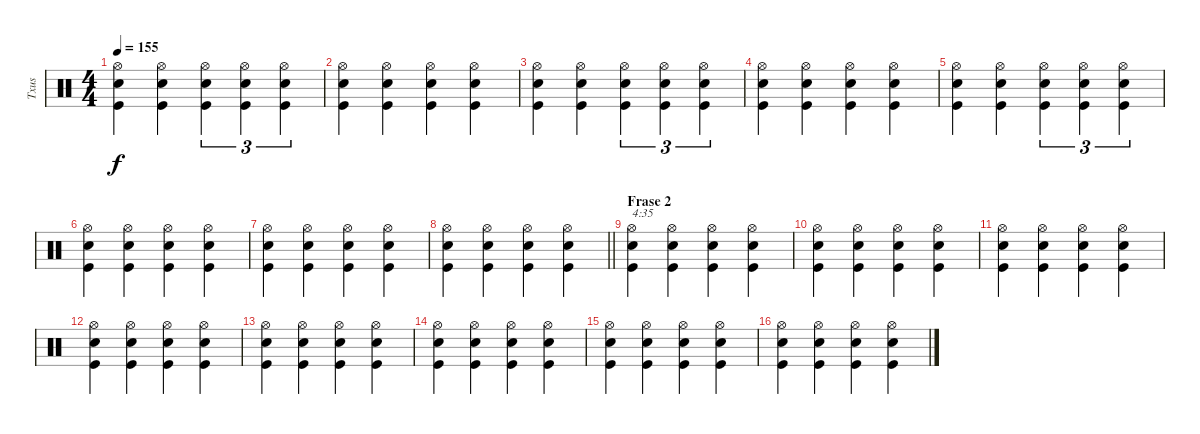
\track ("Txus" "Txus") {instrument percussion}
\staff {score}
\articulation defaults
\ts (4 4)
\tempo 155
\clef neutral
\ks c
("Kick (hit)" "Snare (hit) 2" "Hi-Hat (open)").4{dy f} ("Kick (hit)" "Snare (hit) 2" "Hi-Hat (open)").4 ("Kick (hit)" "Snare (hit) 2" "Hi-Hat (open)").4{tu (3 2)} ("Kick (hit)" "Snare (hit) 2" "Hi-Hat (open)").4{tu (3 2)} ("Kick (hit)" "Snare (hit) 2" "Hi-Hat (open)").4{tu (3 2)} |
("Kick (hit)" "Snare (hit) 2" "Hi-Hat (open)").4 ("Kick (hit)" "Snare (hit) 2" "Hi-Hat (open)").4 ("Kick (hit)" "Snare (hit) 2" "Hi-Hat (open)").4 ("Kick (hit)" "Snare (hit) 2" "Hi-Hat (open)").4 |
("Kick (hit)" "Snare (hit) 2" "Hi-Hat (open)").4 ("Kick (hit)" "Snare (hit) 2" "Hi-Hat (open)").4 ("Kick (hit)" "Snare (hit) 2" "Hi-Hat (open)").4{tu (3 2)} ("Kick (hit)" "Snare (hit) 2" "Hi-Hat (open)").4{tu (3 2)} ("Kick (hit)" "Snare (hit) 2" "Hi-Hat (open)").4{tu (3 2)} |
("Kick (hit)" "Snare (hit) 2" "Hi-Hat (open)").4 ("Kick (hit)" "Snare (hit) 2" "Hi-Hat (open)").4 ("Kick (hit)" "Snare (hit) 2" "Hi-Hat (open)").4 ("Kick (hit)" "Snare (hit) 2" "Hi-Hat (open)").4 |
("Kick (hit)" "Snare (hit) 2" "Hi-Hat (open)").4 ("Kick (hit)" "Snare (hit) 2" "Hi-Hat (open)").4 ("Kick (hit)" "Snare (hit) 2" "Hi-Hat (open)").4{tu (3 2)} ("Kick (hit)" "Snare (hit) 2" "Hi-Hat (open)").4{tu (3 2)} ("Kick (hit)" "Snare (hit) 2" "Hi-Hat (open)").4{tu (3 2)} |
("Kick (hit)" "Snare (hit) 2" "Hi-Hat (open)").4 ("Kick (hit)" "Snare (hit) 2" "Hi-Hat (open)").4 ("Kick (hit)" "Snare (hit) 2" "Hi-Hat (open)").4 ("Kick (hit)" "Snare (hit) 2" "Hi-Hat (open)").4 |
("Kick (hit)" "Snare (hit) 2" "Hi-Hat (open)").4 ("Kick (hit)" "Snare (hit) 2" "Hi-Hat (open)").4 ("Kick (hit)" "Snare (hit) 2" "Hi-Hat (open)").4 ("Kick (hit)" "Snare (hit) 2" "Hi-Hat (open)").4 |
\barLineRight lightlight
("Kick (hit)" "Snare (hit) 2" "Hi-Hat (open)").4 ("Kick (hit)" "Snare (hit) 2" "Hi-Hat (open)").4 ("Kick (hit)" "Snare (hit) 2" "Hi-Hat (open)").4 ("Kick (hit)" "Snare (hit) 2" "Hi-Hat (open)").4 |
\section ("" "Frase 2")
("Kick (hit)" "Snare (hit) 2" "Hi-Hat (open)").4{txt "4:35"} ("Kick (hit)" "Snare (hit) 2" "Hi-Hat (open)").4 ("Kick (hit)" "Snare (hit) 2" "Hi-Hat (open)").4 ("Kick (hit)" "Snare (hit) 2" "Hi-Hat (open)").4 |
("Kick (hit)" "Snare (hit) 2" "Hi-Hat (open)").4 ("Kick (hit)" "Snare (hit) 2" "Hi-Hat (open)").4 ("Kick (hit)" "Snare (hit) 2" "Hi-Hat (open)").4 ("Kick (hit)" "Snare (hit) 2" "Hi-Hat (open)").4 |
("Kick (hit)" "Snare (hit) 2" "Hi-Hat (open)").4 ("Kick (hit)" "Snare (hit) 2" "Hi-Hat (open)").4 ("Kick (hit)" "Snare (hit) 2" "Hi-Hat (open)").4 ("Kick (hit)" "Snare (hit) 2" "Hi-Hat (open)").4 |
("Kick (hit)" "Snare (hit) 2" "Hi-Hat (open)").4 ("Kick (hit)" "Snare (hit) 2" "Hi-Hat (open)").4 ("Kick (hit)" "Snare (hit) 2" "Hi-Hat (open)").4 ("Kick (hit)" "Snare (hit) 2" "Hi-Hat (open)").4 |
("Kick (hit)" "Snare (hit) 2" "Hi-Hat (open)").4 ("Kick (hit)" "Snare (hit) 2" "Hi-Hat (open)").4 ("Kick (hit)" "Snare (hit) 2" "Hi-Hat (open)").4 ("Kick (hit)" "Snare (hit) 2" "Hi-Hat (open)").4 |
("Kick (hit)" "Snare (hit) 2" "Hi-Hat (open)").4 ("Kick (hit)" "Snare (hit) 2" "Hi-Hat (open)").4 ("Kick (hit)" "Snare (hit) 2" "Hi-Hat (open)").4 ("Kick (hit)" "Snare (hit) 2" "Hi-Hat (open)").4 |
("Kick (hit)" "Snare (hit) 2" "Hi-Hat (open)").4 ("Kick (hit)" "Snare (hit) 2" "Hi-Hat (open)").4 ("Kick (hit)" "Snare (hit) 2" "Hi-Hat (open)").4 ("Kick (hit)" "Snare (hit) 2" "Hi-Hat (open)").4 |
("Kick (hit)" "Snare (hit) 2" "Hi-Hat (open)").4 ("Kick (hit)" "Snare (hit) 2" "Hi-Hat (open)").4 ("Kick (hit)" "Snare (hit) 2" "Hi-Hat (open)").4 ("Kick (hit)" "Snare (hit) 2" "Hi-Hat (open)").4
